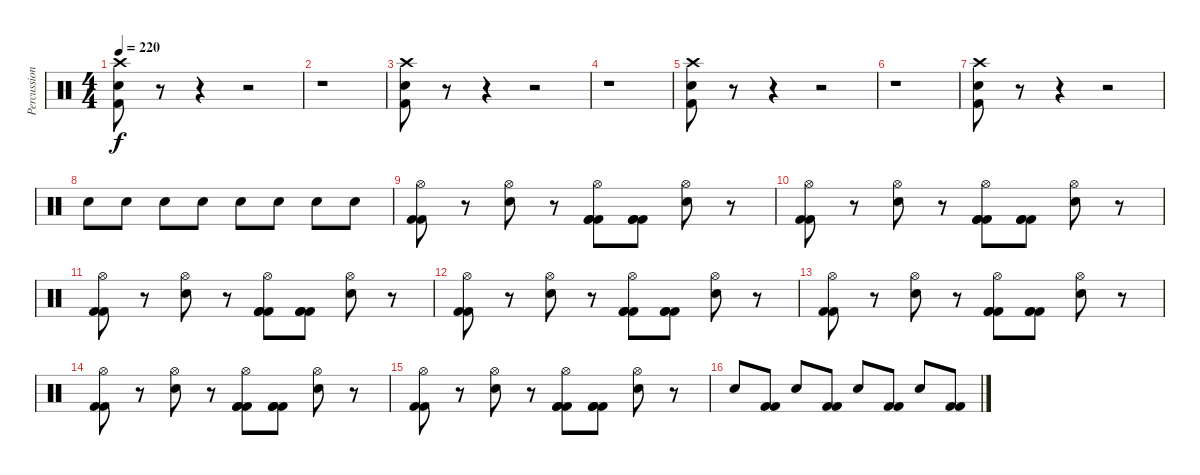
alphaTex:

\track ("Percussion" "Percussion") {instrument percussion}
\staff {score}
\articulation defaults
\ts (4 4)
\tempo 220
\clef neutral
\ks c
("Crash high (hit)" "Electric Snare (hit)" "Kick (hit) 2").8{dy f} r.8 r.4 r.2 |
r.1 |
("Crash high (hit)" "Electric Snare (hit)" "Kick (hit) 2").8 r.8 r.4 r.2 |
r.1 |
("Crash high (hit)" "Electric Snare (hit)" "Kick (hit) 2").8 r.8 r.4 r.2 |
r.1 |
("Crash high (hit)" "Electric Snare (hit)" "Kick (hit) 2").8 r.8 r.4 r.2 |
"Electric Snare (hit)".8 "Electric Snare (hit)".8 "Electric Snare (hit)".8 "Electric Snare (hit)".8 "Electric Snare (hit)".8 "Electric Snare (hit)".8 "Electric Snare (hit)".8 "Electric Snare (hit)".8 |
("Hi-Hat (open)" "Kick (hit) 2" "Kick (hit) 2").8 r.8 ("Hi-Hat (open)" "Electric Snare (hit)").8 r.8 ("Hi-Hat (open)" "Kick (hit) 2" "Kick (hit) 2" "Kick (hit) 2").8 ("Kick (hit) 2" "Kick (hit) 2" "Kick (hit) 2").8 ("Hi-Hat (open)" "Electric Snare (hit)").8 r.8 |
("Hi-Hat (open)" "Kick (hit) 2" "Kick (hit) 2").8 r.8 ("Hi-Hat (open)" "Electric Snare (hit)").8 r.8 ("Hi-Hat (open)" "Kick (hit) 2" "Kick (hit) 2" "Kick (hit) 2").8 ("Kick (hit) 2" "Kick (hit) 2" "Kick (hit) 2").8 ("Hi-Hat (open)" "Electric Snare (hit)").8 r.8 |
("Hi-Hat (open)" "Kick (hit) 2" "Kick (hit) 2").8 r.8 ("Hi-Hat (open)" "Electric Snare (hit)").8 r.8 ("Hi-Hat (open)" "Kick (hit) 2" "Kick (hit) 2" "Kick (hit) 2").8 ("Kick (hit) 2" "Kick (hit) 2" "Kick (hit) 2").8 ("Hi-Hat (open)" "Electric Snare (hit)").8 r.8 |
("Hi-Hat (open)" "Kick (hit) 2" "Kick (hit) 2").8 r.8 ("Hi-Hat (open)" "Electric Snare (hit)").8 r.8 ("Hi-Hat (open)" "Kick (hit) 2" "Kick (hit) 2" "Kick (hit) 2").8 ("Kick (hit) 2" "Kick (hit) 2" "Kick (hit) 2").8 ("Hi-Hat (open)" "Electric Snare (hit)").8 r.8 |
("Hi-Hat (open)" "Kick (hit) 2" "Kick (hit) 2").8 r.8 ("Hi-Hat (open)" "Electric Snare (hit)").8 r.8 ("Hi-Hat (open)" "Kick (hit) 2" "Kick (hit) 2" "Kick (hit) 2").8 ("Kick (hit) 2" "Kick (hit) 2" "Kick (hit) 2").8 ("Hi-Hat (open)" "Electric Snare (hit)").8 r.8 |
("Hi-Hat (open)" "Kick (hit) 2" "Kick (hit) 2").8 r.8 ("Hi-Hat (open)" "Electric Snare (hit)").8 r.8 ("Hi-Hat (open)" "Kick (hit) 2" "Kick (hit) 2" "Kick (hit) 2").8 ("Kick (hit) 2" "Kick (hit) 2" "Kick (hit) 2").8 ("Hi-Hat (open)" "Electric Snare (hit)").8 r.8 |
("Hi-Hat (open)" "Kick (hit) 2" "Kick (hit) 2").8 r.8 ("Hi-Hat (open)" "Electric Snare (hit)").8 r.8 ("Hi-Hat (open)" "Kick (hit) 2" "Kick (hit) 2" "Kick (hit) 2").8 ("Kick (hit) 2" "Kick (hit) 2" "Kick (hit) 2").8 ("Hi-Hat (open)" "Electric Snare (hit)").8 r.8 |
"Electric Snare (hit)".8 ("Kick (hit) 2" "Kick (hit) 2").8 "Electric Snare (hit)".8 ("Kick (hit) 2" "Kick (hit) 2").8 "Electric Snare (hit)".8 ("Kick (hit) 2" "Kick (hit) 2").8 "Electric Snare (hit)".8 ("Kick (hit) 2" "Kick (hit) 2").8
